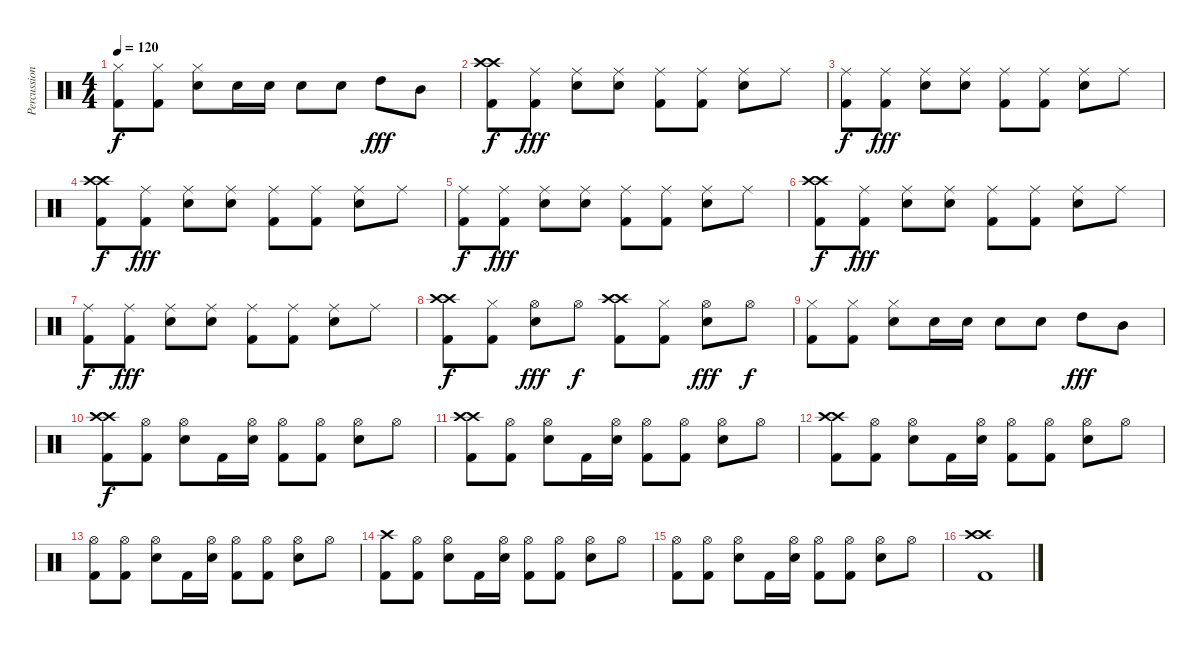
\track ("Percussion" "Percussion") {instrument percussion}
\staff {score}
\articulation defaults
\ts (4 4)
\tempo 120
\clef neutral
\ks c
("Hi-Hat (closed)" "Kick (hit) 2").8{dy f} ("Hi-Hat (closed)" "Kick (hit) 2").8 ("Hi-Hat (closed)" "Electric Snare (hit)").8 "Electric Snare (hit)".16 "Electric Snare (hit)".16 "Electric Snare (hit)".8 "Electric Snare (hit)".8 "High Tom (hit)".8{dy fff} "Mid Tom (hit)".8 |
("Crash high (hit)" "Kick (hit) 2" "Crash high (hit)").8{dy f} ("Ride (middle)" "Kick (hit) 2").8{dy fff} ("Ride (middle)" "Electric Snare (hit)").8 ("Ride (middle)" "Electric Snare (hit)").8 ("Ride (middle)" "Kick (hit) 2").8 ("Ride (middle)" "Kick (hit) 2").8 ("Ride (middle)" "Electric Snare (hit)").8 "Ride (middle)".8 |
("Ride (middle)" "Kick (hit) 2").8{dy f} ("Ride (middle)" "Kick (hit) 2").8{dy fff} ("Ride (middle)" "Electric Snare (hit)").8 ("Ride (middle)" "Electric Snare (hit)").8 ("Ride (middle)" "Kick (hit) 2").8 ("Ride (middle)" "Kick (hit) 2").8 ("Ride (middle)" "Electric Snare (hit)").8 "Ride (middle)".8 |
("Crash high (hit)" "Kick (hit) 2" "Crash high (hit)").8{dy f} ("Ride (middle)" "Kick (hit) 2").8{dy fff} ("Ride (middle)" "Electric Snare (hit)").8 ("Ride (middle)" "Electric Snare (hit)").8 ("Ride (middle)" "Kick (hit) 2").8 ("Ride (middle)" "Kick (hit) 2").8 ("Ride (middle)" "Electric Snare (hit)").8 "Ride (middle)".8 |
("Ride (middle)" "Kick (hit) 2").8{dy f} ("Ride (middle)" "Kick (hit) 2").8{dy fff} ("Ride (middle)" "Electric Snare (hit)").8 ("Ride (middle)" "Electric Snare (hit)").8 ("Ride (middle)" "Kick (hit) 2").8 ("Ride (middle)" "Kick (hit) 2").8 ("Ride (middle)" "Electric Snare (hit)").8 "Ride (middle)".8 |
("Crash high (hit)" "Kick (hit) 2" "Crash high (hit)").8{dy f} ("Ride (middle)" "Kick (hit) 2").8{dy fff} ("Ride (middle)" "Electric Snare (hit)").8 ("Ride (middle)" "Electric Snare (hit)").8 ("Ride (middle)" "Kick (hit) 2").8 ("Ride (middle)" "Kick (hit) 2").8 ("Ride (middle)" "Electric Snare (hit)").8 "Ride (middle)".8 |
("Ride (middle)" "Kick (hit) 2").8{dy f} ("Ride (middle)" "Kick (hit) 2").8{dy fff} ("Ride (middle)" "Electric Snare (hit)").8 ("Ride (middle)" "Electric Snare (hit)").8 ("Ride (middle)" "Kick (hit) 2").8 ("Ride (middle)" "Kick (hit) 2").8 ("Ride (middle)" "Electric Snare (hit)").8 "Ride (middle)".8 |
("Crash high (hit)" "Kick (hit) 2" "Crash high (hit)").8{dy f} ("Hi-Hat (closed)" "Kick (hit) 2").8 ("Hi-Hat (open)" "Electric Snare (hit)").8{dy fff} "Hi-Hat (open)".8{dy f} ("Crash high (hit)" "Kick (hit) 2" "Crash high (hit)").8 ("Hi-Hat (closed)" "Kick (hit) 2").8 ("Hi-Hat (open)" "Electric Snare (hit)").8{dy fff} "Hi-Hat (open)".8{dy f} |
("Hi-Hat (closed)" "Kick (hit) 2").8 ("Hi-Hat (closed)" "Kick (hit) 2").8 ("Hi-Hat (closed)" "Electric Snare (hit)").8 "Electric Snare (hit)".16 "Electric Snare (hit)".16 "Electric Snare (hit)".8 "Electric Snare (hit)".8 "High Tom (hit)".8{dy fff} "Mid Tom (hit)".8 |
("Crash high (hit)" "Kick (hit) 2" "Crash high (hit)").8{dy f} ("Hi-Hat (open)" "Kick (hit) 2").8 ("Hi-Hat (open)" "Electric Snare (hit)").8 "Kick (hit) 2".16 ("Hi-Hat (open)" "Electric Snare (hit)").16 ("Hi-Hat (open)" "Kick (hit) 2").8 ("Hi-Hat (open)" "Kick (hit) 2").8 ("Hi-Hat (open)" "Electric Snare (hit)").8 "Hi-Hat (open)".8 |
("Crash high (hit)" "Kick (hit) 2" "Crash high (hit)").8 ("Hi-Hat (open)" "Kick (hit) 2").8 ("Hi-Hat (open)" "Electric Snare (hit)").8 "Kick (hit) 2".16 ("Hi-Hat (open)" "Electric Snare (hit)").16 ("Hi-Hat (open)" "Kick (hit) 2").8 ("Hi-Hat (open)" "Kick (hit) 2").8 ("Hi-Hat (open)" "Electric Snare (hit)").8 "Hi-Hat (open)".8 |
("Crash high (hit)" "Kick (hit) 2" "Crash high (hit)").8 ("Hi-Hat (open)" "Kick (hit) 2").8 ("Hi-Hat (open)" "Electric Snare (hit)").8 "Kick (hit) 2".16 ("Hi-Hat (open)" "Electric Snare (hit)").16 ("Hi-Hat (open)" "Kick (hit) 2").8 ("Hi-Hat (open)" "Kick (hit) 2").8 ("Hi-Hat (open)" "Electric Snare (hit)").8 "Hi-Hat (open)".8 |
("Hi-Hat (open)" "Kick (hit) 2").8 ("Hi-Hat (open)" "Kick (hit) 2").8 ("Hi-Hat (open)" "Electric Snare (hit)").8 "Kick (hit) 2".16 ("Hi-Hat (open)" "Electric Snare (hit)").16 ("Hi-Hat (open)" "Kick (hit) 2").8 ("Hi-Hat (open)" "Kick (hit) 2").8 ("Hi-Hat (open)" "Electric Snare (hit)").8 "Hi-Hat (open)".8 |
("Crash high (hit)" "Kick (hit) 2").8 ("Hi-Hat (open)" "Kick (hit) 2").8 ("Hi-Hat (open)" "Electric Snare (hit)").8 "Kick (hit) 2".16 ("Hi-Hat (open)" "Electric Snare (hit)").16 ("Hi-Hat (open)" "Kick (hit) 2").8 ("Hi-Hat (open)" "Kick (hit) 2").8 ("Hi-Hat (open)" "Electric Snare (hit)").8 "Hi-Hat (open)".8 |
("Hi-Hat (open)" "Kick (hit) 2").8 ("Hi-Hat (open)" "Kick (hit) 2").8 ("Hi-Hat (open)" "Electric Snare (hit)").8 "Kick (hit) 2".16 ("Hi-Hat (open)" "Electric Snare (hit)").16 ("Hi-Hat (open)" "Kick (hit) 2").8 ("Hi-Hat (open)" "Kick (hit) 2").8 ("Hi-Hat (open)" "Electric Snare (hit)").8 "Hi-Hat (open)".8 |
("Kick (hit) 2" "Crash high (hit)" "Crash high (hit)").1
